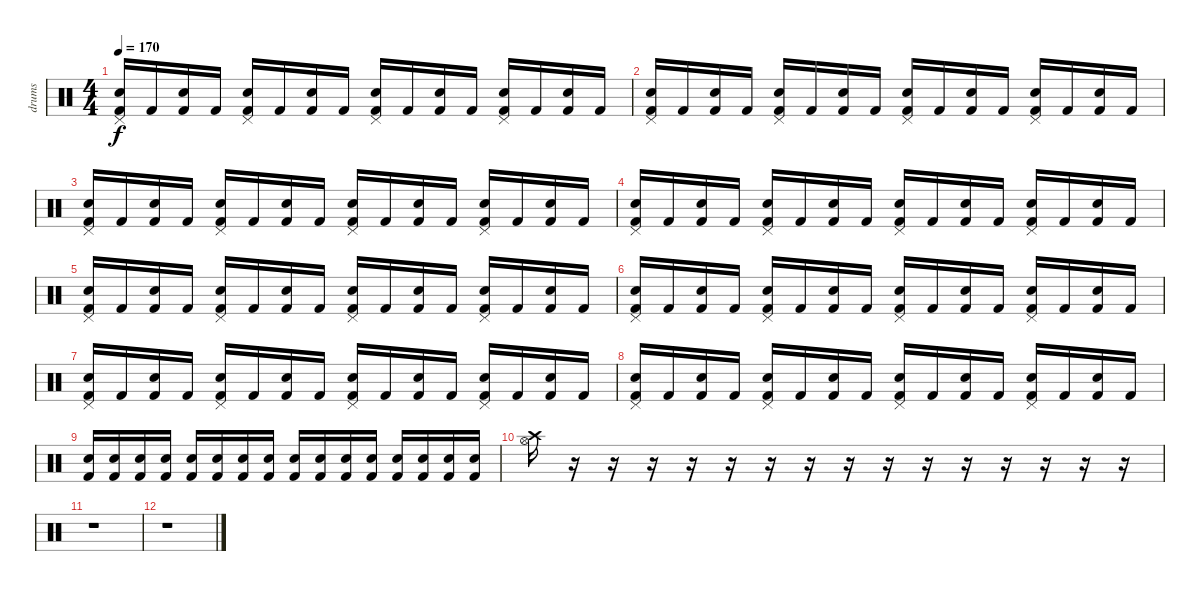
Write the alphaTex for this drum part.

\track ("drums" "drums") {instrument percussion}
\staff {score}
\articulation defaults
\ts (4 4)
\tempo 170
\clef neutral
\ks c
("Pedal Hi-Hat (hit)" "Electric Snare (hit)" "Kick (hit) 2").16{dy f} "Kick (hit) 2".16 ("Electric Snare (hit)" "Kick (hit) 2").16 "Kick (hit) 2".16 ("Pedal Hi-Hat (hit)" "Electric Snare (hit)" "Kick (hit) 2").16 "Kick (hit) 2".16 ("Electric Snare (hit)" "Kick (hit) 2").16 "Kick (hit) 2".16 ("Pedal Hi-Hat (hit)" "Electric Snare (hit)" "Kick (hit) 2").16 "Kick (hit) 2".16 ("Electric Snare (hit)" "Kick (hit) 2").16 "Kick (hit) 2".16 ("Pedal Hi-Hat (hit)" "Electric Snare (hit)" "Kick (hit) 2").16 "Kick (hit) 2".16 ("Electric Snare (hit)" "Kick (hit) 2").16 "Kick (hit) 2".16 |
("Pedal Hi-Hat (hit)" "Electric Snare (hit)" "Kick (hit) 2").16 "Kick (hit) 2".16 ("Electric Snare (hit)" "Kick (hit) 2").16 "Kick (hit) 2".16 ("Pedal Hi-Hat (hit)" "Electric Snare (hit)" "Kick (hit) 2").16 "Kick (hit) 2".16 ("Electric Snare (hit)" "Kick (hit) 2").16 "Kick (hit) 2".16 ("Pedal Hi-Hat (hit)" "Electric Snare (hit)" "Kick (hit) 2").16 "Kick (hit) 2".16 ("Electric Snare (hit)" "Kick (hit) 2").16 "Kick (hit) 2".16 ("Pedal Hi-Hat (hit)" "Electric Snare (hit)" "Kick (hit) 2").16 "Kick (hit) 2".16 ("Electric Snare (hit)" "Kick (hit) 2").16 "Kick (hit) 2".16 |
("Pedal Hi-Hat (hit)" "Electric Snare (hit)" "Kick (hit) 2").16 "Kick (hit) 2".16 ("Electric Snare (hit)" "Kick (hit) 2").16 "Kick (hit) 2".16 ("Pedal Hi-Hat (hit)" "Electric Snare (hit)" "Kick (hit) 2").16 "Kick (hit) 2".16 ("Electric Snare (hit)" "Kick (hit) 2").16 "Kick (hit) 2".16 ("Pedal Hi-Hat (hit)" "Electric Snare (hit)" "Kick (hit) 2").16 "Kick (hit) 2".16 ("Electric Snare (hit)" "Kick (hit) 2").16 "Kick (hit) 2".16 ("Pedal Hi-Hat (hit)" "Electric Snare (hit)" "Kick (hit) 2").16 "Kick (hit) 2".16 ("Electric Snare (hit)" "Kick (hit) 2").16 "Kick (hit) 2".16 |
("Pedal Hi-Hat (hit)" "Electric Snare (hit)" "Kick (hit) 2").16 "Kick (hit) 2".16 ("Electric Snare (hit)" "Kick (hit) 2").16 "Kick (hit) 2".16 ("Pedal Hi-Hat (hit)" "Electric Snare (hit)" "Kick (hit) 2").16 "Kick (hit) 2".16 ("Electric Snare (hit)" "Kick (hit) 2").16 "Kick (hit) 2".16 ("Pedal Hi-Hat (hit)" "Electric Snare (hit)" "Kick (hit) 2").16 "Kick (hit) 2".16 ("Electric Snare (hit)" "Kick (hit) 2").16 "Kick (hit) 2".16 ("Pedal Hi-Hat (hit)" "Electric Snare (hit)" "Kick (hit) 2").16 "Kick (hit) 2".16 ("Electric Snare (hit)" "Kick (hit) 2").16 "Kick (hit) 2".16 |
("Pedal Hi-Hat (hit)" "Electric Snare (hit)" "Kick (hit) 2").16 "Kick (hit) 2".16 ("Electric Snare (hit)" "Kick (hit) 2").16 "Kick (hit) 2".16 ("Pedal Hi-Hat (hit)" "Electric Snare (hit)" "Kick (hit) 2").16 "Kick (hit) 2".16 ("Electric Snare (hit)" "Kick (hit) 2").16 "Kick (hit) 2".16 ("Pedal Hi-Hat (hit)" "Electric Snare (hit)" "Kick (hit) 2").16 "Kick (hit) 2".16 ("Electric Snare (hit)" "Kick (hit) 2").16 "Kick (hit) 2".16 ("Pedal Hi-Hat (hit)" "Electric Snare (hit)" "Kick (hit) 2").16 "Kick (hit) 2".16 ("Electric Snare (hit)" "Kick (hit) 2").16 "Kick (hit) 2".16 |
("Pedal Hi-Hat (hit)" "Electric Snare (hit)" "Kick (hit) 2").16 "Kick (hit) 2".16 ("Electric Snare (hit)" "Kick (hit) 2").16 "Kick (hit) 2".16 ("Pedal Hi-Hat (hit)" "Electric Snare (hit)" "Kick (hit) 2").16 "Kick (hit) 2".16 ("Electric Snare (hit)" "Kick (hit) 2").16 "Kick (hit) 2".16 ("Pedal Hi-Hat (hit)" "Electric Snare (hit)" "Kick (hit) 2").16 "Kick (hit) 2".16 ("Electric Snare (hit)" "Kick (hit) 2").16 "Kick (hit) 2".16 ("Pedal Hi-Hat (hit)" "Electric Snare (hit)" "Kick (hit) 2").16 "Kick (hit) 2".16 ("Electric Snare (hit)" "Kick (hit) 2").16 "Kick (hit) 2".16 |
("Pedal Hi-Hat (hit)" "Electric Snare (hit)" "Kick (hit) 2").16 "Kick (hit) 2".16 ("Electric Snare (hit)" "Kick (hit) 2").16 "Kick (hit) 2".16 ("Pedal Hi-Hat (hit)" "Electric Snare (hit)" "Kick (hit) 2").16 "Kick (hit) 2".16 ("Electric Snare (hit)" "Kick (hit) 2").16 "Kick (hit) 2".16 ("Pedal Hi-Hat (hit)" "Electric Snare (hit)" "Kick (hit) 2").16 "Kick (hit) 2".16 ("Electric Snare (hit)" "Kick (hit) 2").16 "Kick (hit) 2".16 ("Pedal Hi-Hat (hit)" "Electric Snare (hit)" "Kick (hit) 2").16 "Kick (hit) 2".16 ("Electric Snare (hit)" "Kick (hit) 2").16 "Kick (hit) 2".16 |
("Pedal Hi-Hat (hit)" "Electric Snare (hit)" "Kick (hit) 2").16 "Kick (hit) 2".16 ("Electric Snare (hit)" "Kick (hit) 2").16 "Kick (hit) 2".16 ("Pedal Hi-Hat (hit)" "Electric Snare (hit)" "Kick (hit) 2").16 "Kick (hit) 2".16 ("Electric Snare (hit)" "Kick (hit) 2").16 "Kick (hit) 2".16 ("Pedal Hi-Hat (hit)" "Electric Snare (hit)" "Kick (hit) 2").16 "Kick (hit) 2".16 ("Electric Snare (hit)" "Kick (hit) 2").16 "Kick (hit) 2".16 ("Pedal Hi-Hat (hit)" "Electric Snare (hit)" "Kick (hit) 2").16 "Kick (hit) 2".16 ("Electric Snare (hit)" "Kick (hit) 2").16 "Kick (hit) 2".16 |
("Electric Snare (hit)" "Kick (hit) 2").16 ("Electric Snare (hit)" "Kick (hit) 2").16 ("Electric Snare (hit)" "Kick (hit) 2").16 ("Electric Snare (hit)" "Kick (hit) 2").16 ("Electric Snare (hit)" "Kick (hit) 2").16 ("Electric Snare (hit)" "Kick (hit) 2").16 ("Electric Snare (hit)" "Kick (hit) 2").16 ("Electric Snare (hit)" "Kick (hit) 2").16 ("Electric Snare (hit)" "Kick (hit) 2").16 ("Electric Snare (hit)" "Kick (hit) 2").16 ("Electric Snare (hit)" "Kick (hit) 2").16 ("Electric Snare (hit)" "Kick (hit) 2").16 ("Electric Snare (hit)" "Kick (hit) 2").16 ("Electric Snare (hit)" "Kick (hit) 2").16 ("Electric Snare (hit)" "Kick (hit) 2").16 ("Electric Snare (hit)" "Kick (hit) 2").16 |
("Crash high (hit)" "Hi-Hat (open)").16 r.16 r.16 r.16 r.16 r.16 r.16 r.16 r.16 r.16 r.16 r.16 r.16 r.16 r.16 r.16 |
r.1 |
r.1
